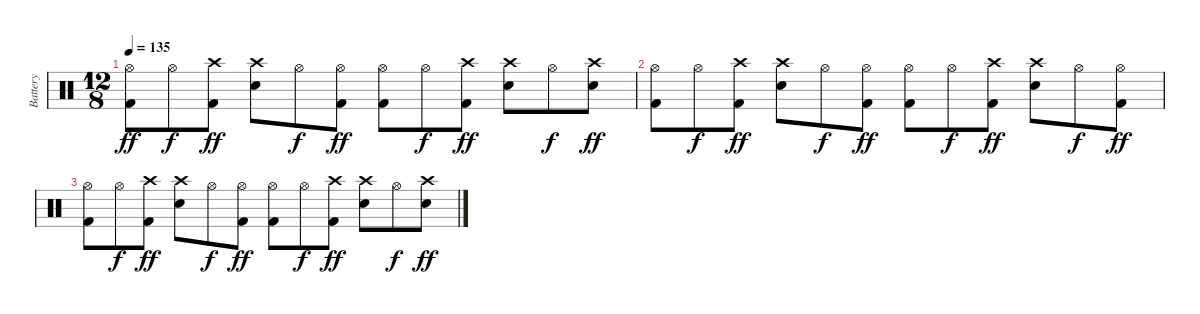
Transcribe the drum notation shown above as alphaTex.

\track ("Battery" "Battery") {instrument percussion}
\staff {score}
\articulation defaults
\ts (12 8)
\tempo 135
\clef neutral
\ks c
("Hi-Hat (open)" "Kick (hit) 2").8{dy ff} "Hi-Hat (open)".8{dy f} ("Crash high (hit)" "Kick (hit) 2").8{dy ff} ("Crash high (hit)" "Snare (hit) 2").8 "Hi-Hat (open)".8{dy f} ("Hi-Hat (open)" "Kick (hit) 2").8{dy ff} ("Hi-Hat (open)" "Kick (hit) 2").8 "Hi-Hat (open)".8{dy f} ("Crash high (hit)" "Kick (hit) 2").8{dy ff} ("Crash high (hit)" "Snare (hit) 2").8 "Hi-Hat (open)".8{dy f} ("Crash high (hit)" "Snare (hit) 2").8{dy ff} |
("Hi-Hat (open)" "Kick (hit) 2").8 "Hi-Hat (open)".8{dy f} ("Crash high (hit)" "Kick (hit) 2").8{dy ff} ("Crash high (hit)" "Snare (hit) 2").8 "Hi-Hat (open)".8{dy f} ("Hi-Hat (open)" "Kick (hit) 2").8{dy ff} ("Hi-Hat (open)" "Kick (hit) 2").8 "Hi-Hat (open)".8{dy f} ("Crash high (hit)" "Kick (hit) 2").8{dy ff} ("Crash high (hit)" "Snare (hit) 2").8 "Hi-Hat (open)".8{dy f} ("Hi-Hat (open)" "Kick (hit) 2").8{dy ff} |
("Hi-Hat (open)" "Kick (hit) 2").8 "Hi-Hat (open)".8{dy f} ("Crash high (hit)" "Kick (hit) 2").8{dy ff} ("Crash high (hit)" "Snare (hit) 2").8 "Hi-Hat (open)".8{dy f} ("Hi-Hat (open)" "Kick (hit) 2").8{dy ff} ("Hi-Hat (open)" "Kick (hit) 2").8 "Hi-Hat (open)".8{dy f} ("Crash high (hit)" "Kick (hit) 2").8{dy ff} ("Crash high (hit)" "Snare (hit) 2").8 "Hi-Hat (open)".8{dy f} ("Crash high (hit)" "Snare (hit) 2").8{dy ff}
